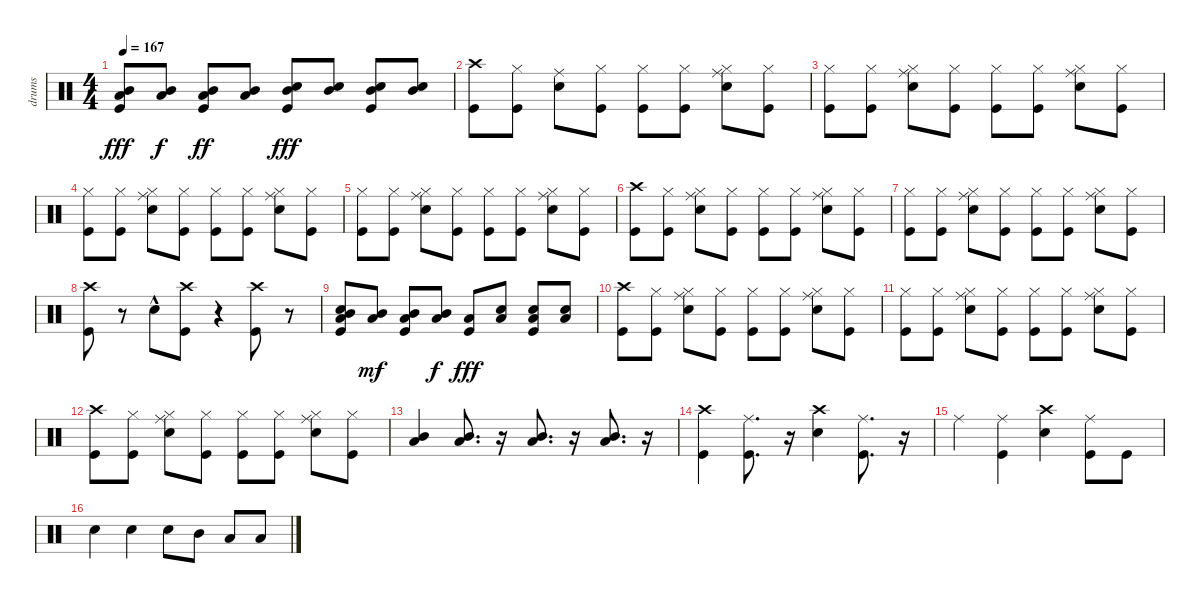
\track ("drums" "drums") {instrument percussion}
\staff {score}
\articulation defaults
\ts (4 4)
\tempo 167
\clef neutral
\ks c
("Kick (hit)" "Low Tom (hit)" "Mid Tom (hit)").8{dy fff} ("Low Tom (hit)" "Mid Tom (hit)").8{dy f} ("Kick (hit)" "Low Tom (hit)" "Mid Tom (hit)").8{dy ff} ("Low Tom (hit)" "Mid Tom (hit)").8 ("Kick (hit)" "Snare (hit) 2" "Mid Tom (hit)").8{dy fff} ("Snare (hit) 2" "Mid Tom (hit)").8 ("Kick (hit)" "Snare (hit) 2" "Mid Tom (hit)").8 ("Mid Tom (hit)" "Snare (hit) 2").8 |
("Kick (hit)" "Crash high (hit)").8 ("Kick (hit)" "Hi-Hat (closed)").8 ("Snare (hit) 2" "Ride (middle)").8 ("Kick (hit)" "Hi-Hat (closed)").8 ("Kick (hit)" "Hi-Hat (closed)").8 ("Kick (hit)" "Hi-Hat (closed)").8 ("Ride (middle)" "Snare (hit) 2" "Hi-Hat (closed)").8 ("Hi-Hat (closed)" "Kick (hit)").8 |
("Kick (hit)" "Hi-Hat (closed)").8 ("Kick (hit)" "Hi-Hat (closed)").8 ("Snare (hit) 2" "Hi-Hat (closed)" "Ride (middle)").8 ("Kick (hit)" "Hi-Hat (closed)").8 ("Kick (hit)" "Hi-Hat (closed)").8 ("Kick (hit)" "Hi-Hat (closed)").8 ("Ride (middle)" "Snare (hit) 2" "Hi-Hat (closed)").8 ("Hi-Hat (closed)" "Kick (hit)").8 |
("Kick (hit)" "Hi-Hat (closed)").8 ("Kick (hit)" "Hi-Hat (closed)").8 ("Snare (hit) 2" "Hi-Hat (closed)" "Ride (middle)").8 ("Kick (hit)" "Hi-Hat (closed)").8 ("Kick (hit)" "Hi-Hat (closed)").8 ("Kick (hit)" "Hi-Hat (closed)").8 ("Ride (middle)" "Snare (hit) 2" "Hi-Hat (closed)").8 ("Hi-Hat (closed)" "Kick (hit)").8 |
("Kick (hit)" "Hi-Hat (closed)").8 ("Kick (hit)" "Hi-Hat (closed)").8 ("Snare (hit) 2" "Hi-Hat (closed)" "Ride (middle)").8 ("Kick (hit)" "Hi-Hat (closed)").8 ("Kick (hit)" "Hi-Hat (closed)").8 ("Kick (hit)" "Hi-Hat (closed)").8 ("Ride (middle)" "Snare (hit) 2" "Hi-Hat (closed)").8 ("Hi-Hat (closed)" "Kick (hit)").8 |
("Kick (hit)" "Crash high (hit)").8 ("Kick (hit)" "Hi-Hat (closed)").8 ("Snare (hit) 2" "Hi-Hat (closed)" "Ride (middle)").8 ("Kick (hit)" "Hi-Hat (closed)").8 ("Kick (hit)" "Hi-Hat (closed)").8 ("Kick (hit)" "Hi-Hat (closed)").8 ("Ride (middle)" "Snare (hit) 2" "Hi-Hat (closed)").8 ("Hi-Hat (closed)" "Kick (hit)").8 |
("Kick (hit)" "Hi-Hat (closed)").8 ("Kick (hit)" "Hi-Hat (closed)").8 ("Snare (hit) 2" "Hi-Hat (closed)" "Ride (middle)").8 ("Kick (hit)" "Hi-Hat (closed)").8 ("Kick (hit)" "Hi-Hat (closed)").8 ("Kick (hit)" "Hi-Hat (closed)").8 ("Ride (middle)" "Snare (hit) 2" "Hi-Hat (closed)").8 ("Hi-Hat (closed)" "Kick (hit)").8 |
("Kick (hit)" "Crash high (hit)").8 r.8 "Snare (hit) 2"{hac}.8 ("Kick (hit)" "Crash high (hit)").8 r.4 ("Kick (hit)" "Crash high (hit)").8 r.8 |
("Kick (hit)" "Snare (hit) 2" "Low Tom (hit)" "Mid Tom (hit)").8 ("Low Tom (hit)" "Mid Tom (hit)").8{dy mf} ("Kick (hit)" "Low Tom (hit)" "Mid Tom (hit)").8 ("Low Tom (hit)" "Mid Tom (hit)").8{dy f} ("Kick (hit)" "Low Tom (hit)").8{dy fff} ("Snare (hit) 2" "Low Tom (hit)").8 ("Kick (hit)" "Snare (hit) 2" "Low Tom (hit)").8 ("Low Tom (hit)" "Snare (hit) 2").8 |
("Kick (hit)" "Crash high (hit)").8 ("Kick (hit)" "Hi-Hat (closed)").8 ("Snare (hit) 2" "Hi-Hat (closed)" "Ride (middle)").8 ("Kick (hit)" "Hi-Hat (closed)").8 ("Kick (hit)" "Hi-Hat (closed)").8 ("Kick (hit)" "Hi-Hat (closed)").8 ("Ride (middle)" "Snare (hit) 2" "Hi-Hat (closed)").8 ("Hi-Hat (closed)" "Kick (hit)").8 |
("Kick (hit)" "Hi-Hat (closed)").8 ("Kick (hit)" "Hi-Hat (closed)").8 ("Snare (hit) 2" "Hi-Hat (closed)" "Ride (middle)").8 ("Kick (hit)" "Hi-Hat (closed)").8 ("Kick (hit)" "Hi-Hat (closed)").8 ("Kick (hit)" "Hi-Hat (closed)").8 ("Ride (middle)" "Snare (hit) 2" "Hi-Hat (closed)").8 ("Hi-Hat (closed)" "Kick (hit)").8 |
("Kick (hit)" "Crash high (hit)").8 ("Kick (hit)" "Hi-Hat (closed)").8 ("Snare (hit) 2" "Hi-Hat (closed)" "Ride (middle)").8 ("Kick (hit)" "Hi-Hat (closed)").8 ("Kick (hit)" "Hi-Hat (closed)").8 ("Kick (hit)" "Hi-Hat (closed)").8 ("Ride (middle)" "Snare (hit) 2" "Hi-Hat (closed)").8 ("Hi-Hat (closed)" "Kick (hit)").8 |
("Low Tom (hit)" "Mid Tom (hit)").4 ("Low Tom (hit)" "Mid Tom (hit)").8{d} r.16 ("Low Tom (hit)" "Mid Tom (hit)").8{d} r.16 ("Low Tom (hit)" "Mid Tom (hit)").8{d} r.16 |
("Kick (hit)" "Crash high (hit)").4 ("Kick (hit)" "Ride (middle)").8{d} r.16 ("Snare (hit) 2" "Crash high (hit)").4 ("Kick (hit)" "Ride (middle)").8{d} r.16 |
"Ride (middle)".4 ("Kick (hit)" "Ride (middle)").4 ("Snare (hit) 2" "Crash high (hit)").4 ("Ride (middle)" "Kick (hit)").8 "Kick (hit)".8 |
"Snare (hit) 2".4 "Snare (hit) 2".4 "Snare (hit) 2".8 "Mid Tom (hit)".8 "Low Tom (hit)".8 "Low Floor Tom (hit)".8
